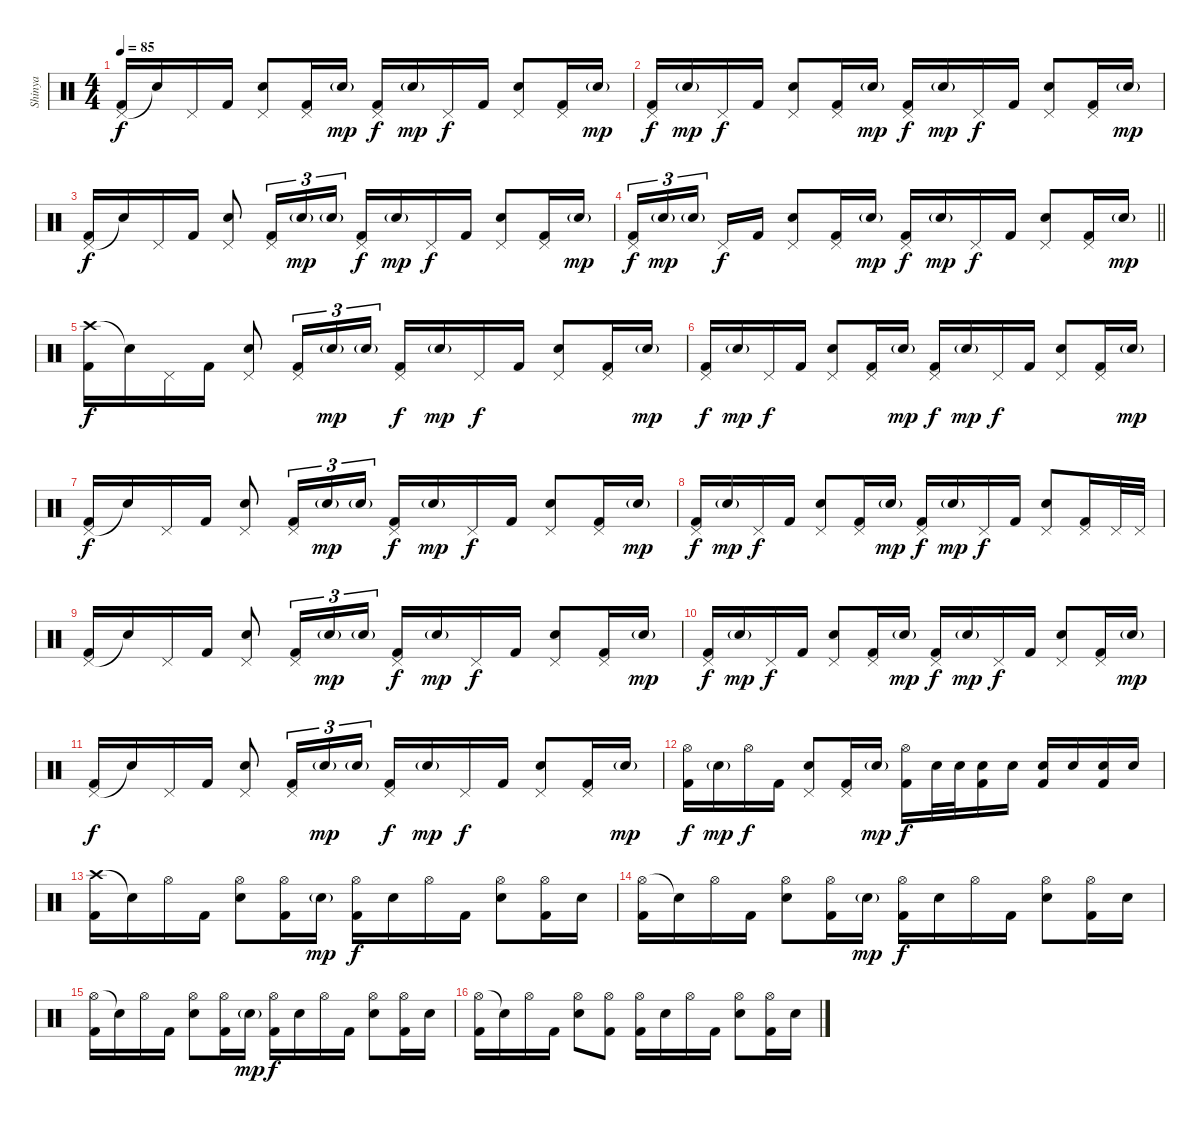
\track ("Shinya" "Shinya") {instrument percussion}
\staff {score}
\articulation defaults
\ts (4 4)
\tempo 85
\clef neutral
\ks c
("Pedal Hi-Hat (hit)" "Kick (hit) 2").16{dy f} "Snare (hit)"{t}.16 "Pedal Hi-Hat (hit)".16 "Kick (hit) 2".16 ("Pedal Hi-Hat (hit)" "Electric Snare (hit)").8 ("Pedal Hi-Hat (hit)" "Kick (hit) 2").16 "Electric Snare (hit)"{g}.16{dy mp} ("Pedal Hi-Hat (hit)" "Kick (hit) 2").16{dy f} "Electric Snare (hit)"{g}.16{dy mp} "Pedal Hi-Hat (hit)".16{dy f} "Kick (hit) 2".16 ("Pedal Hi-Hat (hit)" "Electric Snare (hit)").8 ("Pedal Hi-Hat (hit)" "Kick (hit) 2").16 "Electric Snare (hit)"{g}.16{dy mp} |
("Pedal Hi-Hat (hit)" "Kick (hit) 2").16{dy f} "Electric Snare (hit)"{g}.16{dy mp} "Pedal Hi-Hat (hit)".16{dy f} "Kick (hit) 2".16 ("Pedal Hi-Hat (hit)" "Electric Snare (hit)").8 ("Pedal Hi-Hat (hit)" "Kick (hit) 2").16 "Electric Snare (hit)"{g}.16{dy mp} ("Pedal Hi-Hat (hit)" "Kick (hit) 2").16{dy f} "Electric Snare (hit)"{g}.16{dy mp} "Pedal Hi-Hat (hit)".16{dy f} "Kick (hit) 2".16 ("Pedal Hi-Hat (hit)" "Electric Snare (hit)").8 ("Pedal Hi-Hat (hit)" "Kick (hit) 2").16 "Electric Snare (hit)"{g}.16{dy mp} |
("Pedal Hi-Hat (hit)" "Kick (hit) 2").16{dy f} "Snare (hit)"{t}.16 "Pedal Hi-Hat (hit)".16 "Kick (hit) 2".16 ("Pedal Hi-Hat (hit)" "Electric Snare (hit)").8 ("Pedal Hi-Hat (hit)" "Kick (hit) 2").16{tu (3 2)} "Electric Snare (hit)"{g}.16{tu (3 2) dy mp} "Electric Snare (hit)"{g}.16{tu (3 2)} ("Pedal Hi-Hat (hit)" "Kick (hit) 2").16{dy f} "Electric Snare (hit)"{g}.16{dy mp} "Pedal Hi-Hat (hit)".16{dy f} "Kick (hit) 2".16 ("Pedal Hi-Hat (hit)" "Electric Snare (hit)").8 ("Pedal Hi-Hat (hit)" "Kick (hit) 2").16 "Electric Snare (hit)"{g}.16{dy mp} |
\barLineRight lightlight
("Pedal Hi-Hat (hit)" "Kick (hit) 2").16{tu (3 2) dy f} "Electric Snare (hit)"{g}.16{tu (3 2) dy mp} "Electric Snare (hit)"{g}.16{tu (3 2)} "Pedal Hi-Hat (hit)".16{dy f} "Kick (hit) 2".16 ("Pedal Hi-Hat (hit)" "Electric Snare (hit)").8 ("Pedal Hi-Hat (hit)" "Kick (hit) 2").16 "Electric Snare (hit)"{g}.16{dy mp} ("Pedal Hi-Hat (hit)" "Kick (hit) 2").16{dy f} "Electric Snare (hit)"{g}.16{dy mp} "Pedal Hi-Hat (hit)".16{dy f} "Kick (hit) 2".16 ("Pedal Hi-Hat (hit)" "Electric Snare (hit)").8 ("Pedal Hi-Hat (hit)" "Kick (hit) 2").16 "Electric Snare (hit)"{g}.16{dy mp} |
("Crash high (hit)" "Kick (hit) 2").16{dy f} "Snare (hit)"{t}.16 "Pedal Hi-Hat (hit)".16 "Kick (hit) 2".16 ("Pedal Hi-Hat (hit)" "Electric Snare (hit)").8 ("Pedal Hi-Hat (hit)" "Kick (hit) 2").16{tu (3 2)} "Electric Snare (hit)"{g}.16{tu (3 2) dy mp} "Electric Snare (hit)"{g}.16{tu (3 2)} ("Pedal Hi-Hat (hit)" "Kick (hit) 2").16{dy f} "Electric Snare (hit)"{g}.16{dy mp} "Pedal Hi-Hat (hit)".16{dy f} "Kick (hit) 2".16 ("Pedal Hi-Hat (hit)" "Electric Snare (hit)").8 ("Pedal Hi-Hat (hit)" "Kick (hit) 2").16 "Electric Snare (hit)"{g}.16{dy mp} |
("Pedal Hi-Hat (hit)" "Kick (hit) 2").16{dy f} "Electric Snare (hit)"{g}.16{dy mp} "Pedal Hi-Hat (hit)".16{dy f} "Kick (hit) 2".16 ("Pedal Hi-Hat (hit)" "Electric Snare (hit)").8 ("Pedal Hi-Hat (hit)" "Kick (hit) 2").16 "Electric Snare (hit)"{g}.16{dy mp} ("Pedal Hi-Hat (hit)" "Kick (hit) 2").16{dy f} "Electric Snare (hit)"{g}.16{dy mp} "Pedal Hi-Hat (hit)".16{dy f} "Kick (hit) 2".16 ("Pedal Hi-Hat (hit)" "Electric Snare (hit)").8 ("Pedal Hi-Hat (hit)" "Kick (hit) 2").16 "Electric Snare (hit)"{g}.16{dy mp} |
("Pedal Hi-Hat (hit)" "Kick (hit) 2").16{dy f} "Snare (hit)"{t}.16 "Pedal Hi-Hat (hit)".16 "Kick (hit) 2".16 ("Pedal Hi-Hat (hit)" "Electric Snare (hit)").8 ("Pedal Hi-Hat (hit)" "Kick (hit) 2").16{tu (3 2)} "Electric Snare (hit)"{g}.16{tu (3 2) dy mp} "Electric Snare (hit)"{g}.16{tu (3 2)} ("Pedal Hi-Hat (hit)" "Kick (hit) 2").16{dy f} "Electric Snare (hit)"{g}.16{dy mp} "Pedal Hi-Hat (hit)".16{dy f} "Kick (hit) 2".16 ("Pedal Hi-Hat (hit)" "Electric Snare (hit)").8 ("Pedal Hi-Hat (hit)" "Kick (hit) 2").16 "Electric Snare (hit)"{g}.16{dy mp} |
("Pedal Hi-Hat (hit)" "Kick (hit) 2").16{dy f} "Electric Snare (hit)"{g}.16{dy mp} "Pedal Hi-Hat (hit)".16{dy f} "Kick (hit) 2".16 ("Pedal Hi-Hat (hit)" "Electric Snare (hit)").8 ("Pedal Hi-Hat (hit)" "Kick (hit) 2").16 "Electric Snare (hit)"{g}.16{dy mp} ("Pedal Hi-Hat (hit)" "Kick (hit) 2").16{dy f} "Electric Snare (hit)"{g}.16{dy mp} "Pedal Hi-Hat (hit)".16{dy f} "Kick (hit) 2".16 ("Pedal Hi-Hat (hit)" "Electric Snare (hit)").8 ("Pedal Hi-Hat (hit)" "Kick (hit) 2").16 "Pedal Hi-Hat (hit)".32 "Pedal Hi-Hat (hit)".32 |
("Pedal Hi-Hat (hit)" "Kick (hit) 2").16 "Snare (hit)"{t}.16 "Pedal Hi-Hat (hit)".16 "Kick (hit) 2".16 ("Pedal Hi-Hat (hit)" "Electric Snare (hit)").8 ("Pedal Hi-Hat (hit)" "Kick (hit) 2").16{tu (3 2)} "Electric Snare (hit)"{g}.16{tu (3 2) dy mp} "Electric Snare (hit)"{g}.16{tu (3 2)} ("Pedal Hi-Hat (hit)" "Kick (hit) 2").16{dy f} "Electric Snare (hit)"{g}.16{dy mp} "Pedal Hi-Hat (hit)".16{dy f} "Kick (hit) 2".16 ("Pedal Hi-Hat (hit)" "Electric Snare (hit)").8 ("Pedal Hi-Hat (hit)" "Kick (hit) 2").16 "Electric Snare (hit)"{g}.16{dy mp} |
("Pedal Hi-Hat (hit)" "Kick (hit) 2").16{dy f} "Electric Snare (hit)"{g}.16{dy mp} "Pedal Hi-Hat (hit)".16{dy f} "Kick (hit) 2".16 ("Pedal Hi-Hat (hit)" "Electric Snare (hit)").8 ("Pedal Hi-Hat (hit)" "Kick (hit) 2").16 "Electric Snare (hit)"{g}.16{dy mp} ("Pedal Hi-Hat (hit)" "Kick (hit) 2").16{dy f} "Electric Snare (hit)"{g}.16{dy mp} "Pedal Hi-Hat (hit)".16{dy f} "Kick (hit) 2".16 ("Pedal Hi-Hat (hit)" "Electric Snare (hit)").8 ("Pedal Hi-Hat (hit)" "Kick (hit) 2").16 "Electric Snare (hit)"{g}.16{dy mp} |
("Pedal Hi-Hat (hit)" "Kick (hit) 2").16{dy f} "Snare (hit)"{t}.16 "Pedal Hi-Hat (hit)".16 "Kick (hit) 2".16 ("Pedal Hi-Hat (hit)" "Electric Snare (hit)").8 ("Pedal Hi-Hat (hit)" "Kick (hit) 2").16{tu (3 2)} "Electric Snare (hit)"{g}.16{tu (3 2) dy mp} "Electric Snare (hit)"{g}.16{tu (3 2)} ("Pedal Hi-Hat (hit)" "Kick (hit) 2").16{dy f} "Electric Snare (hit)"{g}.16{dy mp} "Pedal Hi-Hat (hit)".16{dy f} "Kick (hit) 2".16 ("Pedal Hi-Hat (hit)" "Electric Snare (hit)").8 ("Pedal Hi-Hat (hit)" "Kick (hit) 2").16 "Electric Snare (hit)"{g}.16{dy mp} |
("Hi-Hat (open)" "Kick (hit) 2").16{dy f} "Electric Snare (hit)"{g}.16{dy mp} "Hi-Hat (open)".16{dy f} "Kick (hit) 2".16 ("Pedal Hi-Hat (hit)" "Electric Snare (hit)").8 ("Pedal Hi-Hat (hit)" "Kick (hit) 2").16 "Electric Snare (hit)"{g}.16{dy mp} ("Hi-Hat (open)" "Kick (hit) 2").16{dy f} "Electric Snare (hit)".32 "Electric Snare (hit)".32 ("Electric Snare (hit)" "Kick (hit) 2").16 "Electric Snare (hit)".16 ("Electric Snare (hit)" "Kick (hit) 2").16 "Electric Snare (hit)".16 ("Electric Snare (hit)" "Kick (hit) 2").16 "Electric Snare (hit)".16 |
("Crash high (hit)" "Kick (hit) 2").16 "Snare (hit)"{t}.16 "Hi-Hat (open)".16 "Kick (hit) 2".16 ("Hi-Hat (open)" "Electric Snare (hit)").8 ("Hi-Hat (open)" "Kick (hit) 2").16 "Electric Snare (hit)"{g}.16{dy mp} ("Hi-Hat (open)" "Kick (hit) 2").16{dy f} "Electric Snare (hit)".16 "Hi-Hat (open)".16 "Kick (hit) 2".16 ("Hi-Hat (open)" "Electric Snare (hit)").8 ("Hi-Hat (open)" "Kick (hit) 2").16 "Electric Snare (hit)".16 |
("Hi-Hat (open)" "Kick (hit) 2").16 "Snare (hit)"{t}.16 "Hi-Hat (open)".16 "Kick (hit) 2".16 ("Hi-Hat (open)" "Electric Snare (hit)").8 ("Hi-Hat (open)" "Kick (hit) 2").16 "Electric Snare (hit)"{g}.16{dy mp} ("Hi-Hat (open)" "Kick (hit) 2").16{dy f} "Electric Snare (hit)".16 "Hi-Hat (open)".16 "Kick (hit) 2".16 ("Hi-Hat (open)" "Electric Snare (hit)").8 ("Hi-Hat (open)" "Kick (hit) 2").16 "Electric Snare (hit)".16 |
("Hi-Hat (open)" "Kick (hit) 2").16 "Snare (hit)"{t}.16 "Hi-Hat (open)".16 "Kick (hit) 2".16 ("Hi-Hat (open)" "Electric Snare (hit)").8 ("Hi-Hat (open)" "Kick (hit) 2").16 "Electric Snare (hit)"{g}.16{dy mp} ("Hi-Hat (open)" "Kick (hit) 2").16{dy f} "Electric Snare (hit)".16 "Hi-Hat (open)".16 "Kick (hit) 2".16 ("Hi-Hat (open)" "Electric Snare (hit)").8 ("Hi-Hat (open)" "Kick (hit) 2").16 "Electric Snare (hit)".16 |
("Hi-Hat (open)" "Kick (hit) 2").16 "Snare (hit)"{t}.16 "Hi-Hat (open)".16 "Kick (hit) 2".16 ("Hi-Hat (open)" "Electric Snare (hit)").8 ("Hi-Hat (open)" "Kick (hit) 2").8 ("Hi-Hat (open)" "Kick (hit) 2").16 "Electric Snare (hit)".16 "Hi-Hat (open)".16 "Kick (hit) 2".16 ("Hi-Hat (open)" "Electric Snare (hit)").8 ("Hi-Hat (open)" "Kick (hit) 2").16 "Electric Snare (hit)".16
